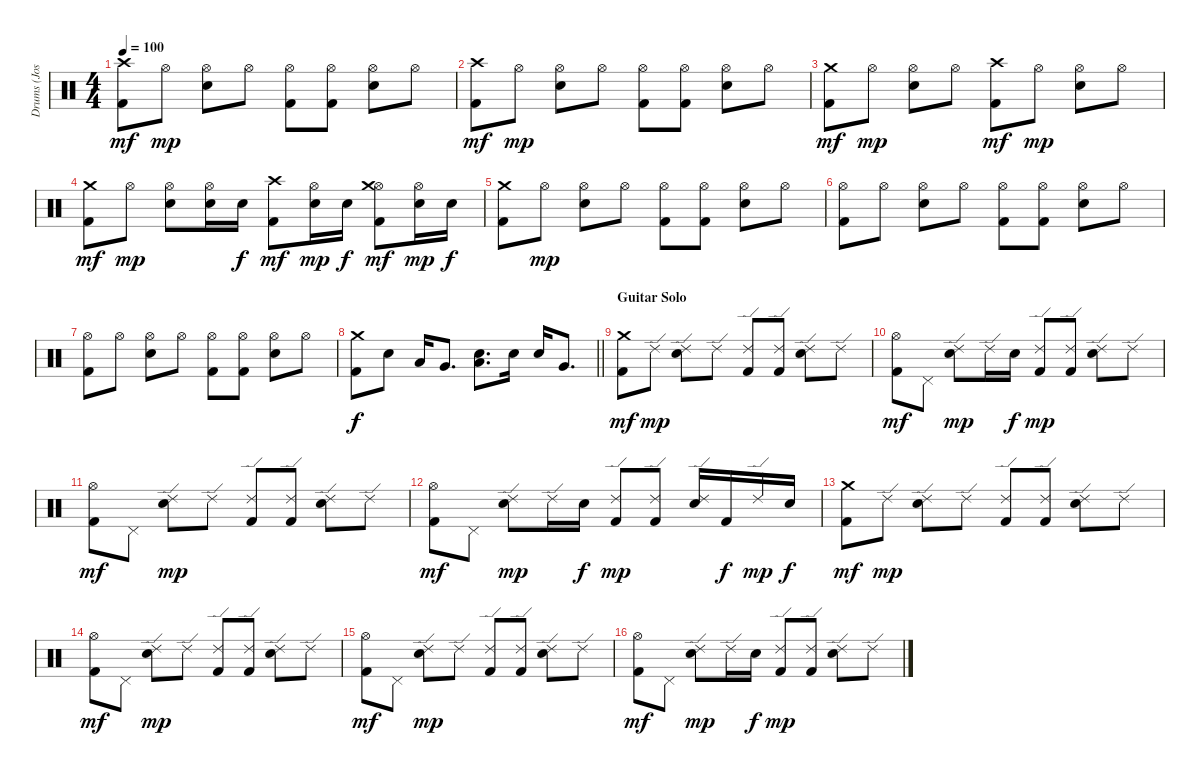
\track ("Drums (Josh Freese)" "Drums (Jos") {instrument percussion}
\staff {score}
\articulation defaults
\ts (4 4)
\tempo 100
\clef neutral
\ks c
("Crash high (hit)" "Kick (hit) 2").8{dy mf} "Hi-Hat (open)".8{dy mp} ("Hi-Hat (open)" "Electric Snare (hit)").8 "Hi-Hat (open)".8 ("Hi-Hat (open)" "Kick (hit) 2").8 ("Hi-Hat (open)" "Kick (hit) 2").8 ("Hi-Hat (open)" "Electric Snare (hit)").8 "Hi-Hat (open)".8 |
("Crash high (hit)" "Kick (hit) 2").8{dy mf} "Hi-Hat (open)".8{dy mp} ("Hi-Hat (open)" "Electric Snare (hit)").8 "Hi-Hat (open)".8 ("Hi-Hat (open)" "Kick (hit) 2").8 ("Hi-Hat (open)" "Kick (hit) 2").8 ("Hi-Hat (open)" "Electric Snare (hit)").8 "Hi-Hat (open)".8 |
("Crash medium (hit)" "Kick (hit) 2").8{dy mf} "Hi-Hat (open)".8{dy mp} ("Hi-Hat (open)" "Electric Snare (hit)").8 "Hi-Hat (open)".8 ("Crash high (hit)" "Kick (hit) 2").8{dy mf} "Hi-Hat (open)".8{dy mp} ("Hi-Hat (open)" "Electric Snare (hit)").8 "Hi-Hat (open)".8 |
("Crash medium (hit)" "Kick (hit) 2").8{dy mf} "Hi-Hat (open)".8{dy mp} ("Hi-Hat (open)" "Electric Snare (hit)").8 ("Hi-Hat (open)" "Electric Snare (hit)").16 "Electric Snare (hit)".16{dy f} ("Crash high (hit)" "Kick (hit) 2").8{dy mf} ("Hi-Hat (open)" "Electric Snare (hit)").16{dy mp} "Electric Snare (hit)".16{dy f} ("Hi-Hat (open)" "Crash medium (hit)" "Kick (hit) 2").8{dy mf} ("Hi-Hat (open)" "Electric Snare (hit)").16{dy mp} "Electric Snare (hit)".16{dy f} |
("Crash medium (hit)" "Kick (hit) 2").8 "Hi-Hat (open)".8{dy mp} ("Hi-Hat (open)" "Electric Snare (hit)").8 "Hi-Hat (open)".8 ("Hi-Hat (open)" "Kick (hit) 2").8 ("Hi-Hat (open)" "Kick (hit) 2").8 ("Hi-Hat (open)" "Electric Snare (hit)").8 "Hi-Hat (open)".8 |
("Hi-Hat (open)" "Kick (hit) 2").8 "Hi-Hat (open)".8 ("Hi-Hat (open)" "Electric Snare (hit)").8 "Hi-Hat (open)".8 ("Hi-Hat (open)" "Kick (hit) 2").8 ("Hi-Hat (open)" "Kick (hit) 2").8 ("Hi-Hat (open)" "Electric Snare (hit)").8 "Hi-Hat (open)".8 |
("Hi-Hat (open)" "Kick (hit) 2").8 "Hi-Hat (open)".8 ("Hi-Hat (open)" "Electric Snare (hit)").8 "Hi-Hat (open)".8 ("Hi-Hat (open)" "Kick (hit) 2").8 ("Hi-Hat (open)" "Kick (hit) 2").8 ("Hi-Hat (open)" "Electric Snare (hit)").8 "Hi-Hat (open)".8 |
\barLineRight lightlight
("Crash medium (hit)" "Kick (hit) 2").8{dy f} "Electric Snare (hit)".8 "Low Tom (hit)".16 "Very Low Tom (hit)".8{d} ("Electric Snare (hit)" "Low Floor Tom (hit)").8{d} "Electric Snare (hit)".16 "Electric Snare (hit)".16 "Very Low Tom (hit)".8{d} |
\section ("" "Guitar Solo")
("Crash medium (hit)" "Kick (hit) 2").8{dy mf} "Ride (edge) 2".8{dy mp} ("Ride (edge) 2" "Electric Snare (hit)").8 "Ride (edge) 2".8 ("Ride (edge) 2" "Kick (hit) 2").8 ("Ride (edge) 2" "Kick (hit) 2").8 ("Ride (edge) 2" "Electric Snare (hit)").8 "Ride (edge) 2".8 |
("Hi-Hat (open)" "Kick (hit) 2").8{dy mf} "Pedal Hi-Hat (hit)".8 ("Ride (edge) 2" "Electric Snare (hit)").8{dy mp} "Ride (edge) 2".16 "Electric Snare (hit)".16{dy f} ("Ride (edge) 2" "Kick (hit) 2").8{dy mp} ("Ride (edge) 2" "Kick (hit) 2").8 ("Ride (edge) 2" "Electric Snare (hit)").8 "Ride (edge) 2".8 |
("Hi-Hat (open)" "Kick (hit) 2").8{dy mf} "Pedal Hi-Hat (hit)".8 ("Ride (edge) 2" "Electric Snare (hit)").8{dy mp} "Ride (edge) 2".8 ("Ride (edge) 2" "Kick (hit) 2").8 ("Ride (edge) 2" "Kick (hit) 2").8 ("Ride (edge) 2" "Electric Snare (hit)").8 "Ride (edge) 2".8 |
("Hi-Hat (open)" "Kick (hit) 2").8{dy mf} "Pedal Hi-Hat (hit)".8 ("Ride (edge) 2" "Electric Snare (hit)").8{dy mp} "Ride (edge) 2".16 "Electric Snare (hit)".16{dy f} ("Ride (edge) 2" "Kick (hit) 2").8{dy mp} ("Ride (edge) 2" "Kick (hit) 2").8 ("Ride (edge) 2" "Electric Snare (hit)").16 "Kick (hit) 2".16{dy f} "Ride (edge) 2".16{dy mp} "Electric Snare (hit)".16{dy f} |
("Crash medium (hit)" "Kick (hit) 2").8{dy mf} "Ride (edge) 2".8{dy mp} ("Ride (edge) 2" "Electric Snare (hit)").8 "Ride (edge) 2".8 ("Ride (edge) 2" "Kick (hit) 2").8 ("Ride (edge) 2" "Kick (hit) 2").8 ("Ride (edge) 2" "Electric Snare (hit)").8 "Ride (edge) 2".8 |
("Hi-Hat (open)" "Kick (hit) 2").8{dy mf} "Pedal Hi-Hat (hit)".8 ("Ride (edge) 2" "Electric Snare (hit)").8{dy mp} "Ride (edge) 2".8 ("Ride (edge) 2" "Kick (hit) 2").8 ("Ride (edge) 2" "Kick (hit) 2").8 ("Ride (edge) 2" "Electric Snare (hit)").8 "Ride (edge) 2".8 |
("Hi-Hat (open)" "Kick (hit) 2").8{dy mf} "Pedal Hi-Hat (hit)".8 ("Ride (edge) 2" "Electric Snare (hit)").8{dy mp} "Ride (edge) 2".8 ("Ride (edge) 2" "Kick (hit) 2").8 ("Ride (edge) 2" "Kick (hit) 2").8 ("Ride (edge) 2" "Electric Snare (hit)").8 "Ride (edge) 2".8 |
("Hi-Hat (open)" "Kick (hit) 2").8{dy mf} "Pedal Hi-Hat (hit)".8 ("Ride (edge) 2" "Electric Snare (hit)").8{dy mp} "Ride (edge) 2".16 "Electric Snare (hit)".16{dy f} ("Ride (edge) 2" "Kick (hit) 2").8{dy mp} ("Ride (edge) 2" "Kick (hit) 2").8 ("Ride (edge) 2" "Electric Snare (hit)").8 "Ride (edge) 2".8
